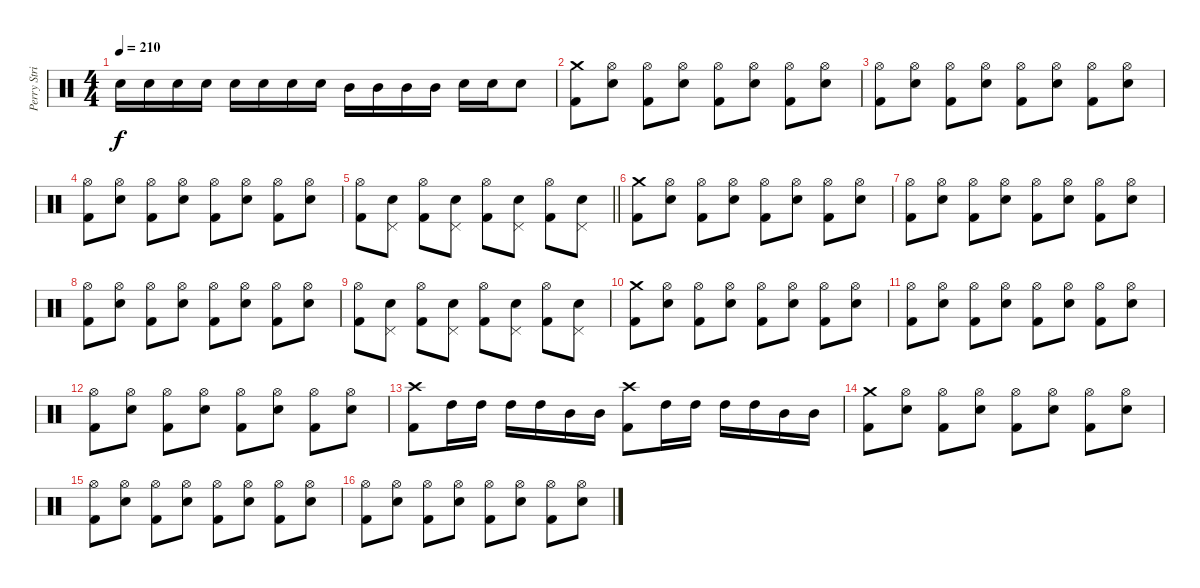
\track ("Perry Strickland" "Perry Stri") {instrument percussion}
\staff {score}
\articulation defaults
\ts (4 4)
\tempo 210
\clef neutral
\ks c "Electric Snare (hit)".16{dy f} "Electric Snare (hit)".16 "Electric Snare (hit)".16 "Electric Snare (hit)".16 "Electric Snare (hit)".16 "Electric Snare (hit)".16 "Electric Snare (hit)".16 "Electric Snare (hit)".16 "Mid Tom (hit)".16 "Mid Tom (hit)".16 "Mid Tom (hit)".16 "Mid Tom (hit)".16 "Electric Snare (hit)".16 "Electric Snare (hit)".16 "Electric Snare (hit)".8
|
("Crash medium (hit)" "Kick (hit) 2").8 ("Hi-Hat (open)" "Electric Snare (hit)").8 ("Hi-Hat (open)" "Kick (hit) 2").8 ("Hi-Hat (open)" "Electric Snare (hit)").8 ("Hi-Hat (open)" "Kick (hit) 2").8 ("Hi-Hat (open)" "Electric Snare (hit)").8 ("Hi-Hat (open)" "Kick (hit) 2").8 ("Hi-Hat (open)" "Electric Snare (hit)").8 |
("Hi-Hat (open)" "Kick (hit) 2").8 ("Hi-Hat (open)" "Electric Snare (hit)").8 ("Hi-Hat (open)" "Kick (hit) 2").8 ("Hi-Hat (open)" "Electric Snare (hit)").8 ("Hi-Hat (open)" "Kick (hit) 2").8 ("Hi-Hat (open)" "Electric Snare (hit)").8 ("Hi-Hat (open)" "Kick (hit) 2").8 ("Hi-Hat (open)" "Electric Snare (hit)").8 |
("Hi-Hat (open)" "Kick (hit) 2").8 ("Hi-Hat (open)" "Electric Snare (hit)").8 ("Hi-Hat (open)" "Kick (hit) 2").8 ("Hi-Hat (open)" "Electric Snare (hit)").8 ("Hi-Hat (open)" "Kick (hit) 2").8 ("Hi-Hat (open)" "Electric Snare (hit)").8 ("Hi-Hat (open)" "Kick (hit) 2").8 ("Hi-Hat (open)" "Electric Snare (hit)").8 |
\barLineRight lightlight
("Hi-Hat (open)" "Kick (hit) 2").8 ("Pedal Hi-Hat (hit)" "Electric Snare (hit)").8 ("Hi-Hat (open)" "Kick (hit) 2").8 ("Pedal Hi-Hat (hit)" "Electric Snare (hit)").8 ("Hi-Hat (open)" "Kick (hit) 2").8 ("Pedal Hi-Hat (hit)" "Electric Snare (hit)").8 ("Hi-Hat (open)" "Kick (hit) 2").8 ("Pedal Hi-Hat (hit)" "Electric Snare (hit)").8 |
("Crash medium (hit)" "Kick (hit) 2").8 ("Hi-Hat (open)" "Electric Snare (hit)").8 ("Hi-Hat (open)" "Kick (hit) 2").8 ("Hi-Hat (open)" "Electric Snare (hit)").8 ("Hi-Hat (open)" "Kick (hit) 2").8 ("Hi-Hat (open)" "Electric Snare (hit)").8 ("Hi-Hat (open)" "Kick (hit) 2").8 ("Hi-Hat (open)" "Electric Snare (hit)").8 |
("Hi-Hat (open)" "Kick (hit) 2").8 ("Hi-Hat (open)" "Electric Snare (hit)").8 ("Hi-Hat (open)" "Kick (hit) 2").8 ("Hi-Hat (open)" "Electric Snare (hit)").8 ("Hi-Hat (open)" "Kick (hit) 2").8 ("Hi-Hat (open)" "Electric Snare (hit)").8 ("Hi-Hat (open)" "Kick (hit) 2").8 ("Hi-Hat (open)" "Electric Snare (hit)").8 |
("Hi-Hat (open)" "Kick (hit) 2").8 ("Hi-Hat (open)" "Electric Snare (hit)").8 ("Hi-Hat (open)" "Kick (hit) 2").8 ("Hi-Hat (open)" "Electric Snare (hit)").8 ("Hi-Hat (open)" "Kick (hit) 2").8 ("Hi-Hat (open)" "Electric Snare (hit)").8 ("Hi-Hat (open)" "Kick (hit) 2").8 ("Hi-Hat (open)" "Electric Snare (hit)").8 |
("Hi-Hat (open)" "Kick (hit) 2").8 ("Pedal Hi-Hat (hit)" "Electric Snare (hit)").8 ("Hi-Hat (open)" "Kick (hit) 2").8 ("Pedal Hi-Hat (hit)" "Electric Snare (hit)").8 ("Hi-Hat (open)" "Kick (hit) 2").8 ("Pedal Hi-Hat (hit)" "Electric Snare (hit)").8 ("Hi-Hat (open)" "Kick (hit) 2").8 ("Pedal Hi-Hat (hit)" "Electric Snare (hit)").8 |
("Crash medium (hit)" "Kick (hit) 2").8 ("Hi-Hat (open)" "Electric Snare (hit)").8 ("Hi-Hat (open)" "Kick (hit) 2").8 ("Hi-Hat (open)" "Electric Snare (hit)").8 ("Hi-Hat (open)" "Kick (hit) 2").8 ("Hi-Hat (open)" "Electric Snare (hit)").8 ("Hi-Hat (open)" "Kick (hit) 2").8 ("Hi-Hat (open)" "Electric Snare (hit)").8 |
("Hi-Hat (open)" "Kick (hit) 2").8 ("Hi-Hat (open)" "Electric Snare (hit)").8 ("Hi-Hat (open)" "Kick (hit) 2").8 ("Hi-Hat (open)" "Electric Snare (hit)").8 ("Hi-Hat (open)" "Kick (hit) 2").8 ("Hi-Hat (open)" "Electric Snare (hit)").8 ("Hi-Hat (open)" "Kick (hit) 2").8 ("Hi-Hat (open)" "Electric Snare (hit)").8 |
("Hi-Hat (open)" "Kick (hit) 2").8 ("Hi-Hat (open)" "Electric Snare (hit)").8 ("Hi-Hat (open)" "Kick (hit) 2").8 ("Hi-Hat (open)" "Electric Snare (hit)").8 ("Hi-Hat (open)" "Kick (hit) 2").8 ("Hi-Hat (open)" "Electric Snare (hit)").8 ("Hi-Hat (open)" "Kick (hit) 2").8 ("Hi-Hat (open)" "Electric Snare (hit)").8 |
("Crash high (hit)" "Kick (hit) 2").8 "High Tom (hit)".16 "High Tom (hit)".16 "High Tom (hit)".16 "High Tom (hit)".16 "Mid Tom (hit)".16 "Mid Tom (hit)".16 ("Crash high (hit)" "Kick (hit) 2").8 "High Tom (hit)".16 "High Tom (hit)".16 "High Tom (hit)".16 "High Tom (hit)".16 "Mid Tom (hit)".16 "Mid Tom (hit)".16 |
("Crash medium (hit)" "Kick (hit) 2").8 ("Hi-Hat (open)" "Electric Snare (hit)").8 ("Hi-Hat (open)" "Kick (hit) 2").8 ("Hi-Hat (open)" "Electric Snare (hit)").8 ("Hi-Hat (open)" "Kick (hit) 2").8 ("Hi-Hat (open)" "Electric Snare (hit)").8 ("Hi-Hat (open)" "Kick (hit) 2").8 ("Hi-Hat (open)" "Electric Snare (hit)").8 |
("Hi-Hat (open)" "Kick (hit) 2").8 ("Hi-Hat (open)" "Electric Snare (hit)").8 ("Hi-Hat (open)" "Kick (hit) 2").8 ("Hi-Hat (open)" "Electric Snare (hit)").8 ("Hi-Hat (open)" "Kick (hit) 2").8 ("Hi-Hat (open)" "Electric Snare (hit)").8 ("Hi-Hat (open)" "Kick (hit) 2").8 ("Hi-Hat (open)" "Electric Snare (hit)").8 |
("Hi-Hat (open)" "Kick (hit) 2").8 ("Hi-Hat (open)" "Electric Snare (hit)").8 ("Hi-Hat (open)" "Kick (hit) 2").8 ("Hi-Hat (open)" "Electric Snare (hit)").8 ("Hi-Hat (open)" "Kick (hit) 2").8 ("Hi-Hat (open)" "Electric Snare (hit)").8 ("Hi-Hat (open)" "Kick (hit) 2").8 ("Hi-Hat (open)" "Electric Snare (hit)").8
